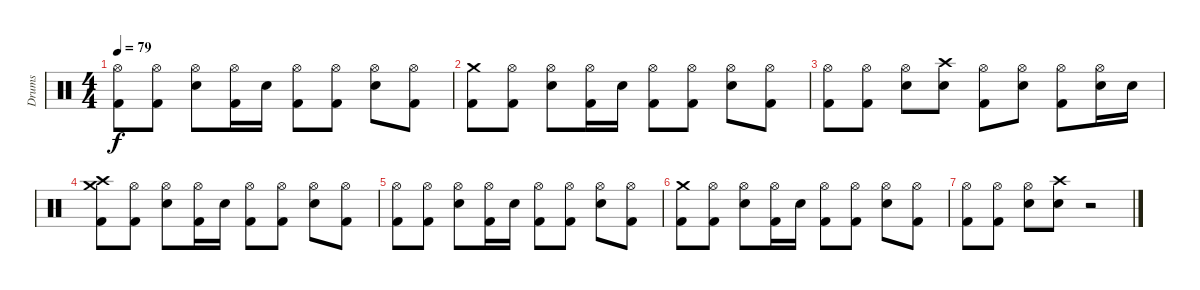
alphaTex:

\track ("Drums" "Drums") {instrument percussion}
\staff {score}
\articulation defaults
\ts (4 4)
\tempo 79
\clef neutral
\ks c
("Hi-Hat (open)" "Kick (hit) 2").8{dy f} ("Hi-Hat (open)" "Kick (hit) 2").8 ("Hi-Hat (open)" "Electric Snare (hit)").8 ("Hi-Hat (open)" "Kick (hit) 2").16 "Electric Snare (hit)".16 ("Hi-Hat (open)" "Kick (hit) 2").8 ("Hi-Hat (open)" "Kick (hit) 2").8 ("Hi-Hat (open)" "Electric Snare (hit)").8 ("Hi-Hat (open)" "Kick (hit) 2").8 |
("Crash medium (hit)" "Kick (hit) 2").8 ("Hi-Hat (open)" "Kick (hit) 2").8 ("Hi-Hat (open)" "Electric Snare (hit)").8 ("Hi-Hat (open)" "Kick (hit) 2").16 "Electric Snare (hit)".16 ("Hi-Hat (open)" "Kick (hit) 2").8 ("Hi-Hat (open)" "Kick (hit) 2").8 ("Hi-Hat (open)" "Electric Snare (hit)").8 ("Hi-Hat (open)" "Kick (hit) 2").8 |
("Hi-Hat (open)" "Kick (hit) 2").8 ("Hi-Hat (open)" "Kick (hit) 2").8 ("Hi-Hat (open)" "Electric Snare (hit)").8 ("Crash high (hit)" "Electric Snare (hit)").8 ("Hi-Hat (open)" "Kick (hit) 2").8 ("Hi-Hat (open)" "Electric Snare (hit)").8 ("Hi-Hat (open)" "Kick (hit) 2").8 ("Hi-Hat (open)" "Electric Snare (hit)").16 "Electric Snare (hit)".16 |
("Crash high (hit)" "Crash medium (hit)" "Kick (hit) 2").8 ("Hi-Hat (open)" "Kick (hit) 2").8 ("Hi-Hat (open)" "Electric Snare (hit)").8 ("Hi-Hat (open)" "Kick (hit) 2").16 "Electric Snare (hit)".16 ("Hi-Hat (open)" "Kick (hit) 2").8 ("Hi-Hat (open)" "Kick (hit) 2").8 ("Hi-Hat (open)" "Electric Snare (hit)").8 ("Hi-Hat (open)" "Kick (hit) 2").8 |
("Hi-Hat (open)" "Kick (hit) 2").8 ("Hi-Hat (open)" "Kick (hit) 2").8 ("Hi-Hat (open)" "Electric Snare (hit)").8 ("Hi-Hat (open)" "Kick (hit) 2").16 "Electric Snare (hit)".16 ("Hi-Hat (open)" "Kick (hit) 2").8 ("Hi-Hat (open)" "Kick (hit) 2").8 ("Hi-Hat (open)" "Electric Snare (hit)").8 ("Hi-Hat (open)" "Kick (hit) 2").8 |
("Crash medium (hit)" "Kick (hit) 2").8 ("Hi-Hat (open)" "Kick (hit) 2").8 ("Hi-Hat (open)" "Electric Snare (hit)").8 ("Hi-Hat (open)" "Kick (hit) 2").16 "Electric Snare (hit)".16 ("Hi-Hat (open)" "Kick (hit) 2").8 ("Hi-Hat (open)" "Kick (hit) 2").8 ("Hi-Hat (open)" "Electric Snare (hit)").8 ("Hi-Hat (open)" "Kick (hit) 2").8 |
("Hi-Hat (open)" "Kick (hit) 2").8 ("Hi-Hat (open)" "Kick (hit) 2").8 ("Hi-Hat (open)" "Electric Snare (hit)").8 ("Crash high (hit)" "Electric Snare (hit)").8 r.2
